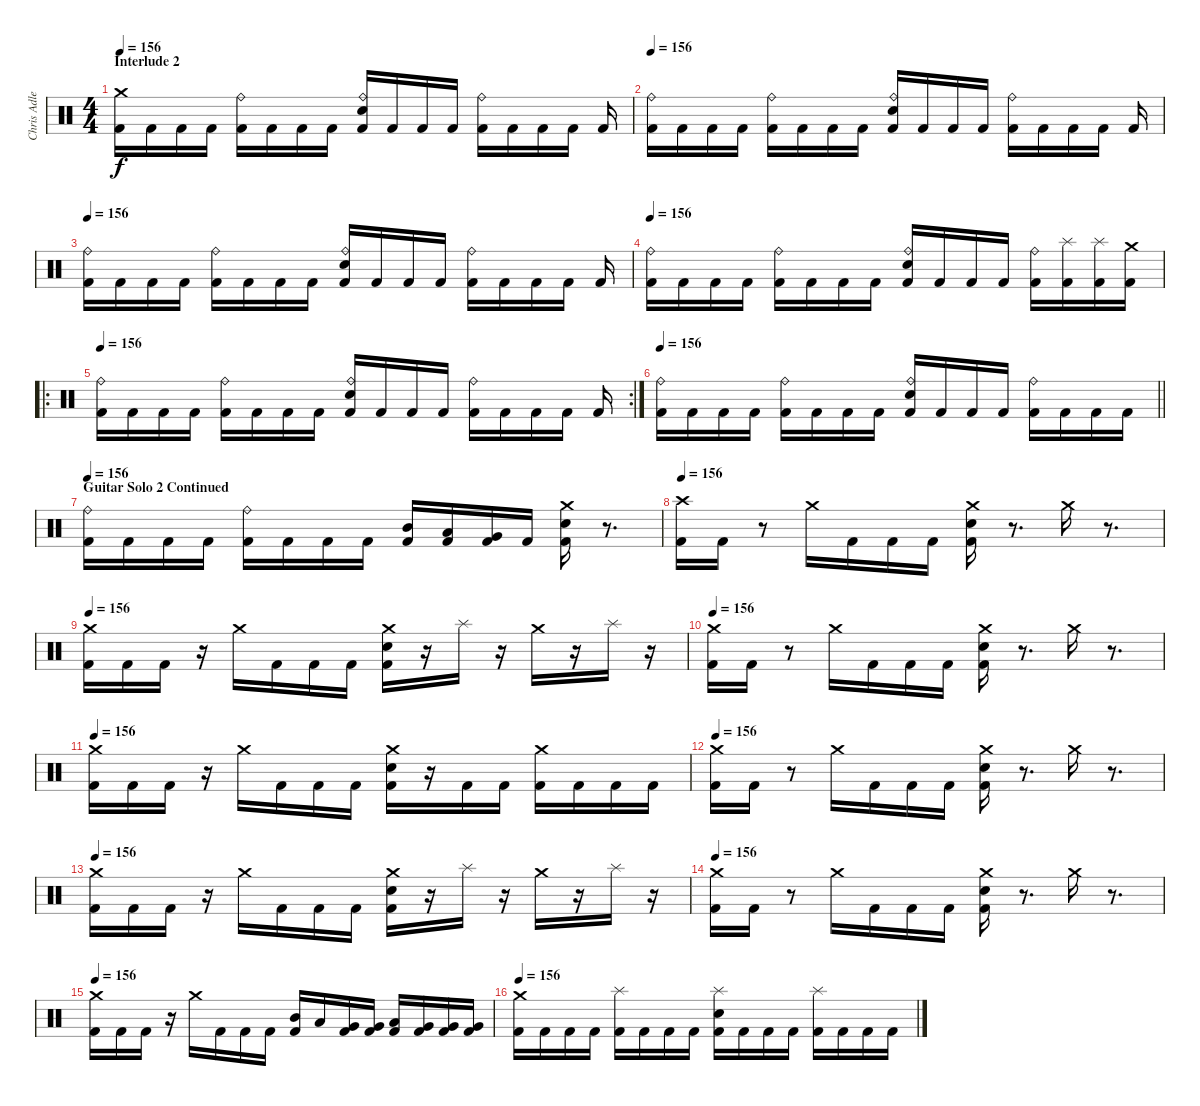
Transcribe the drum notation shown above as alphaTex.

\track ("Chris Adler" "Chris Adle") {instrument percussion}
\staff {score}
\articulation defaults
\ts (4 4)
\section ("" "Interlude 2")
\tempo 156
\clef neutral
\ks c
("Crash medium (hit)" "Kick (hit) 2").16{dy f} "Kick (hit) 2".16 "Kick (hit) 2".16 "Kick (hit) 2".16 ("Ride (bell)" "Kick (hit) 2").16 "Kick (hit) 2".16 "Kick (hit) 2".16 "Kick (hit) 2".16 ("Ride (bell)" "Electric Snare (hit)" "Kick (hit) 2").16 "Kick (hit) 2".16 "Kick (hit) 2".16 "Kick (hit) 2".16 ("Ride (bell)" "Kick (hit) 2").16 "Kick (hit) 2".16 "Kick (hit) 2".16 "Kick (hit) 2".16 "Kick (hit) 2".16 |
\tempo 156
("Ride (bell)" "Kick (hit) 2").16 "Kick (hit) 2".16 "Kick (hit) 2".16 "Kick (hit) 2".16 ("Ride (bell)" "Kick (hit) 2").16 "Kick (hit) 2".16 "Kick (hit) 2".16 "Kick (hit) 2".16 ("Ride (bell)" "Electric Snare (hit)" "Kick (hit) 2").16 "Kick (hit) 2".16 "Kick (hit) 2".16 "Kick (hit) 2".16 ("Ride (bell)" "Kick (hit) 2").16 "Kick (hit) 2".16 "Kick (hit) 2".16 "Kick (hit) 2".16 "Kick (hit) 2".16 |
\tempo 156
("Ride (bell)" "Kick (hit) 2").16 "Kick (hit) 2".16 "Kick (hit) 2".16 "Kick (hit) 2".16 ("Ride (bell)" "Kick (hit) 2").16 "Kick (hit) 2".16 "Kick (hit) 2".16 "Kick (hit) 2".16 ("Ride (bell)" "Electric Snare (hit)" "Kick (hit) 2").16 "Kick (hit) 2".16 "Kick (hit) 2".16 "Kick (hit) 2".16 ("Ride (bell)" "Kick (hit) 2").16 "Kick (hit) 2".16 "Kick (hit) 2".16 "Kick (hit) 2".16 "Kick (hit) 2".16 |
\tempo 156
("Ride (bell)" "Kick (hit) 2").16 "Kick (hit) 2".16 "Kick (hit) 2".16 "Kick (hit) 2".16 ("Ride (bell)" "Kick (hit) 2").16 "Kick (hit) 2".16 "Kick (hit) 2".16 "Kick (hit) 2".16 ("Ride (bell)" "Electric Snare (hit)" "Kick (hit) 2").16 "Kick (hit) 2".16 "Kick (hit) 2".16 "Kick (hit) 2".16 ("Ride (bell)" "Kick (hit) 2").16 ("Splash (hit)" "Kick (hit) 2").16 ("Splash (hit)" "Kick (hit) 2").16 ("Crash medium (hit)" "Kick (hit) 2").16 |
\ro
\rc 2
\tempo 156
("Ride (bell)" "Kick (hit) 2").16 "Kick (hit) 2".16 "Kick (hit) 2".16 "Kick (hit) 2".16 ("Ride (bell)" "Kick (hit) 2").16 "Kick (hit) 2".16 "Kick (hit) 2".16 "Kick (hit) 2".16 ("Ride (bell)" "Electric Snare (hit)" "Kick (hit) 2").16 "Kick (hit) 2".16 "Kick (hit) 2".16 "Kick (hit) 2".16 ("Ride (bell)" "Kick (hit) 2").16 "Kick (hit) 2".16 "Kick (hit) 2".16 "Kick (hit) 2".16 "Kick (hit) 2".16 |
\tempo 156
\barLineRight lightlight
("Ride (bell)" "Kick (hit) 2").16 "Kick (hit) 2".16 "Kick (hit) 2".16 "Kick (hit) 2".16 ("Ride (bell)" "Kick (hit) 2").16 "Kick (hit) 2".16 "Kick (hit) 2".16 "Kick (hit) 2".16 ("Ride (bell)" "Electric Snare (hit)" "Kick (hit) 2").16 "Kick (hit) 2".16 "Kick (hit) 2".16 "Kick (hit) 2".16 ("Ride (bell)" "Kick (hit) 2").16 "Kick (hit) 2".16 "Kick (hit) 2".16 "Kick (hit) 2".16 |
\section ("" "Guitar Solo 2 Continued")
\tempo 156
("Ride (bell)" "Kick (hit) 2").16 "Kick (hit) 2".16 "Kick (hit) 2".16 "Kick (hit) 2".16 ("Ride (bell)" "Kick (hit) 2").16 "Kick (hit) 2".16 "Kick (hit) 2".16 "Kick (hit) 2".16 ("Mid Tom (hit)" "Kick (hit) 2").16 ("Low Tom (hit)" "Kick (hit) 2").16 ("Very Low Tom (hit)" "Kick (hit) 2").16 "Kick (hit) 2".16 ("Crash medium (hit)" "Electric Snare (hit)" "Kick (hit) 2").16 r.8{d} |
\tempo 156
("Crash high (hit)" "Kick (hit) 2").16 "Kick (hit) 2".16 r.8 "Crash medium (hit)".16 "Kick (hit) 2".16 "Kick (hit) 2".16 "Kick (hit) 2".16 ("Crash medium (hit)" "Electric Snare (hit)" "Kick (hit) 2").16 r.8{d} "Crash medium (hit)".16 r.8{d} |
\tempo 156
("Crash medium (hit)" "Kick (hit) 2").16 "Kick (hit) 2".16 "Kick (hit) 2".16 r.16 "Crash medium (hit)".16 "Kick (hit) 2".16 "Kick (hit) 2".16 "Kick (hit) 2".16 ("Crash medium (hit)" "Electric Snare (hit)" "Kick (hit) 2").16 r.16 "Splash (hit)".16 r.16 "Crash medium (hit)".16 r.16 "Splash (hit)".16 r.16 |
\tempo 156
("Crash medium (hit)" "Kick (hit) 2").16 "Kick (hit) 2".16 r.8 "Crash medium (hit)".16 "Kick (hit) 2".16 "Kick (hit) 2".16 "Kick (hit) 2".16 ("Crash medium (hit)" "Electric Snare (hit)" "Kick (hit) 2").16 r.8{d} "Crash medium (hit)".16 r.8{d} |
\tempo 156
("Crash medium (hit)" "Kick (hit) 2").16 "Kick (hit) 2".16 "Kick (hit) 2".16 r.16 "Crash medium (hit)".16 "Kick (hit) 2".16 "Kick (hit) 2".16 "Kick (hit) 2".16 ("Crash medium (hit)" "Electric Snare (hit)" "Kick (hit) 2").16 r.16 "Kick (hit) 2".16 "Kick (hit) 2".16 ("Crash medium (hit)" "Kick (hit) 2").16 "Kick (hit) 2".16 "Kick (hit) 2".16 "Kick (hit) 2".16 |
\tempo 156
("Crash medium (hit)" "Kick (hit) 2").16 "Kick (hit) 2".16 r.8 "Crash medium (hit)".16 "Kick (hit) 2".16 "Kick (hit) 2".16 "Kick (hit) 2".16 ("Crash medium (hit)" "Electric Snare (hit)" "Kick (hit) 2").16 r.8{d} "Crash medium (hit)".16 r.8{d} |
\tempo 156
("Crash medium (hit)" "Kick (hit) 2").16 "Kick (hit) 2".16 "Kick (hit) 2".16 r.16 "Crash medium (hit)".16 "Kick (hit) 2".16 "Kick (hit) 2".16 "Kick (hit) 2".16 ("Crash medium (hit)" "Electric Snare (hit)" "Kick (hit) 2").16 r.16 "Splash (hit)".16 r.16 "Crash medium (hit)".16 r.16 "Splash (hit)".16 r.16 |
\tempo 156
("Crash medium (hit)" "Kick (hit) 2").16 "Kick (hit) 2".16 r.8 "Crash medium (hit)".16 "Kick (hit) 2".16 "Kick (hit) 2".16 "Kick (hit) 2".16 ("Crash medium (hit)" "Electric Snare (hit)" "Kick (hit) 2").16 r.8{d} "Crash medium (hit)".16 r.8{d} |
\tempo 156
("Crash medium (hit)" "Kick (hit) 2").16 "Kick (hit) 2".16 "Kick (hit) 2".16 r.16 "Crash medium (hit)".16 "Kick (hit) 2".16 "Kick (hit) 2".16 "Kick (hit) 2".16 ("Mid Tom (hit)" "Kick (hit) 2").16 "Low Tom (hit)".16 ("Very Low Tom (hit)" "Kick (hit) 2").16 ("Very Low Tom (hit)" "Kick (hit) 2").16 ("Low Tom (hit)" "Kick (hit) 2").16 ("Very Low Tom (hit)" "Kick (hit) 2").16 ("Very Low Tom (hit)" "Kick (hit) 2").16 ("Very Low Tom (hit)" "Kick (hit) 2").16 |
\tempo 156
("Crash medium (hit)" "Kick (hit) 2").16 "Kick (hit) 2".16 "Kick (hit) 2".16 "Kick (hit) 2".16 ("Splash (hit)" "Kick (hit) 2").16 "Kick (hit) 2".16 "Kick (hit) 2".16 "Kick (hit) 2".16 ("Splash (hit)" "Electric Snare (hit)" "Kick (hit) 2").16 "Kick (hit) 2".16 "Kick (hit) 2".16 "Kick (hit) 2".16 ("Splash (hit)" "Kick (hit) 2").16 "Kick (hit) 2".16 "Kick (hit) 2".16 "Kick (hit) 2".16
